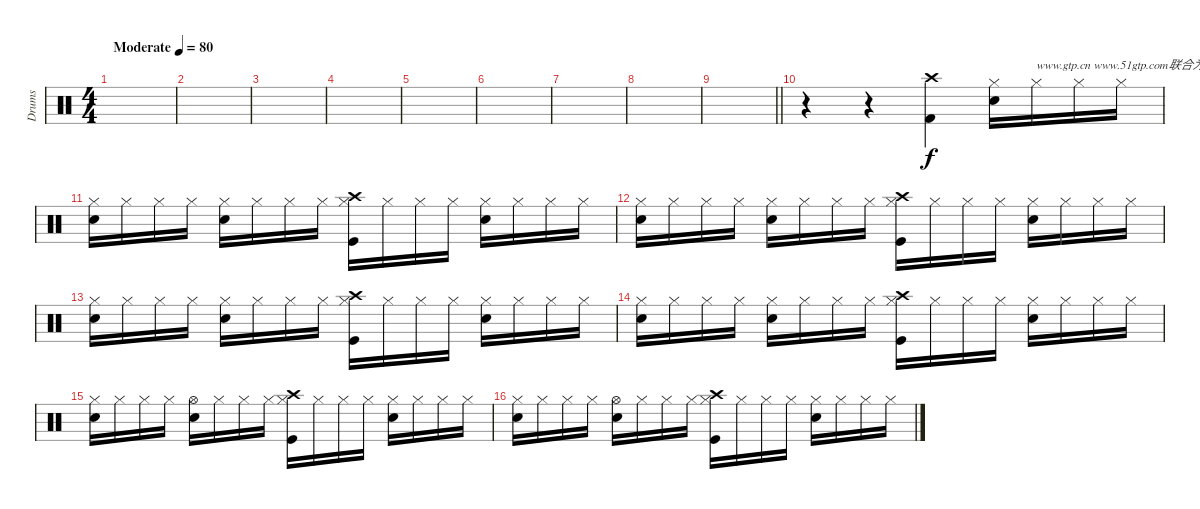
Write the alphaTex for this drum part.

\track ("Drums" "Drums") {instrument percussion}
\staff {score}
\articulation defaults
\ts (4 4)
\tempo (80 "Moderate")
\clef neutral
\ks c
|
|
|
|
|
|
|
|
\barLineRight lightlight
|
r.4 r.4 ("Crash high (hit)" "Kick (hit) 2").4 ("Hi-Hat (closed)" "Snare (hit) 2").16 "Hi-Hat (closed)".16{txt "www.gtp.cn www.51gtp.com联合为您提供优秀的GTP!"} "Hi-Hat (closed)".16 "Hi-Hat (closed)".16 |
("Hi-Hat (closed)" "Snare (hit) 2").16 "Hi-Hat (closed)".16 "Hi-Hat (closed)".16 "Hi-Hat (closed)".16 ("Hi-Hat (closed)" "Snare (hit) 2").16 "Hi-Hat (closed)".16 "Hi-Hat (closed)".16 "Hi-Hat (closed)".16 ("Crash high (hit)" "Hi-Hat (closed)" "Kick (hit)").16 "Hi-Hat (closed)".16 "Hi-Hat (closed)".16 "Hi-Hat (closed)".16 ("Hi-Hat (closed)" "Snare (hit) 2").16 "Hi-Hat (closed)".16 "Hi-Hat (closed)".16 "Hi-Hat (closed)".16 |
("Hi-Hat (closed)" "Snare (hit) 2").16 "Hi-Hat (closed)".16 "Hi-Hat (closed)".16 "Hi-Hat (closed)".16 ("Hi-Hat (closed)" "Snare (hit) 2").16 "Hi-Hat (closed)".16 "Hi-Hat (closed)".16 "Hi-Hat (closed)".16 ("Crash high (hit)" "Hi-Hat (closed)" "Kick (hit)").16 "Hi-Hat (closed)".16 "Hi-Hat (closed)".16 "Hi-Hat (closed)".16 ("Hi-Hat (closed)" "Snare (hit) 2").16 "Hi-Hat (closed)".16 "Hi-Hat (closed)".16 "Hi-Hat (closed)".16 |
("Hi-Hat (closed)" "Snare (hit) 2").16 "Hi-Hat (closed)".16 "Hi-Hat (closed)".16 "Hi-Hat (closed)".16 ("Hi-Hat (closed)" "Snare (hit) 2").16 "Hi-Hat (closed)".16 "Hi-Hat (closed)".16 "Hi-Hat (closed)".16 ("Crash high (hit)" "Hi-Hat (closed)" "Kick (hit)").16 "Hi-Hat (closed)".16 "Hi-Hat (closed)".16 "Hi-Hat (closed)".16 ("Hi-Hat (closed)" "Snare (hit) 2").16 "Hi-Hat (closed)".16 "Hi-Hat (closed)".16 "Hi-Hat (closed)".16 |
("Hi-Hat (closed)" "Snare (hit) 2").16 "Hi-Hat (closed)".16 "Hi-Hat (closed)".16 "Hi-Hat (closed)".16 ("Hi-Hat (closed)" "Snare (hit) 2").16 "Hi-Hat (closed)".16 "Hi-Hat (closed)".16 "Hi-Hat (closed)".16 ("Crash high (hit)" "Hi-Hat (closed)" "Kick (hit)").16 "Hi-Hat (closed)".16 "Hi-Hat (closed)".16 "Hi-Hat (closed)".16 ("Hi-Hat (closed)" "Snare (hit) 2").16 "Hi-Hat (closed)".16 "Hi-Hat (closed)".16 "Hi-Hat (closed)".16 |
("Hi-Hat (closed)" "Snare (hit) 2").16 "Hi-Hat (closed)".16 "Hi-Hat (closed)".16 "Hi-Hat (closed)".16 ("Hi-Hat (open)" "Snare (hit) 2").16 "Hi-Hat (closed)".16 "Hi-Hat (closed)".16 "Hi-Hat (closed)".16 ("Crash high (hit)" "Hi-Hat (closed)" "Kick (hit)").16 "Hi-Hat (closed)".16 "Hi-Hat (closed)".16 "Hi-Hat (closed)".16 ("Hi-Hat (closed)" "Snare (hit) 2").16 "Hi-Hat (closed)".16 "Hi-Hat (closed)".16 "Hi-Hat (closed)".16 |
("Hi-Hat (closed)" "Snare (hit) 2").16 "Hi-Hat (closed)".16 "Hi-Hat (closed)".16 "Hi-Hat (closed)".16 ("Hi-Hat (open)" "Snare (hit) 2").16 "Hi-Hat (closed)".16 "Hi-Hat (closed)".16 "Hi-Hat (closed)".16 ("Crash high (hit)" "Hi-Hat (closed)" "Kick (hit)").16 "Hi-Hat (closed)".16 "Hi-Hat (closed)".16 "Hi-Hat (closed)".16 ("Hi-Hat (closed)" "Snare (hit) 2").16 "Hi-Hat (closed)".16 "Hi-Hat (closed)".16 "Hi-Hat (closed)".16
